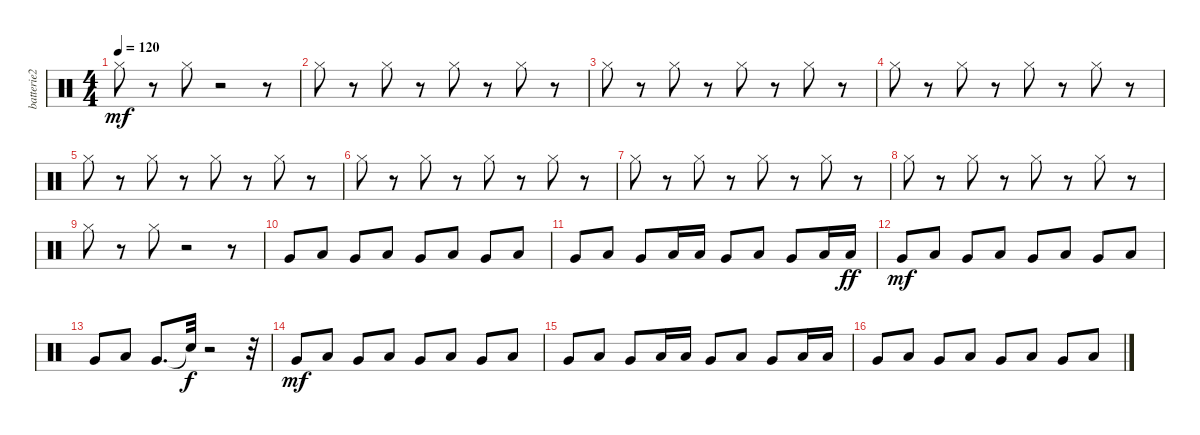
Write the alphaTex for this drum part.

\track ("batterie2" "batterie2") {instrument percussion}
\staff {score}
\articulation defaults
\ts (4 4)
\tempo 120
\clef neutral
\ks c "Hi-Hat (closed)".8{dy mf}
r.8 "Hi-Hat (closed)".8 r.2 r.8 |
"Hi-Hat (closed)".8 r.8 "Hi-Hat (closed)".8 r.8 "Hi-Hat (closed)".8 r.8 "Hi-Hat (closed)".8 r.8 |
"Hi-Hat (closed)".8 r.8 "Hi-Hat (closed)".8 r.8 "Hi-Hat (closed)".8 r.8 "Hi-Hat (closed)".8 r.8 |
"Hi-Hat (closed)".8 r.8 "Hi-Hat (closed)".8 r.8 "Hi-Hat (closed)".8 r.8 "Hi-Hat (closed)".8 r.8 |
"Hi-Hat (closed)".8 r.8 "Hi-Hat (closed)".8 r.8 "Hi-Hat (closed)".8 r.8 "Hi-Hat (closed)".8 r.8 |
"Hi-Hat (closed)".8 r.8 "Hi-Hat (closed)".8 r.8 "Hi-Hat (closed)".8 r.8 "Hi-Hat (closed)".8 r.8 |
"Hi-Hat (closed)".8 r.8 "Hi-Hat (closed)".8 r.8 "Hi-Hat (closed)".8 r.8 "Hi-Hat (closed)".8 r.8 |
"Hi-Hat (closed)".8 r.8 "Hi-Hat (closed)".8 r.8 "Hi-Hat (closed)".8 r.8 "Hi-Hat (closed)".8 r.8 |
"Hi-Hat (closed)".8 r.8 "Hi-Hat (closed)".8 r.2 r.8 |
"Very Low Tom (hit)".8 "Low Tom (hit)".8 "Very Low Tom (hit)".8 "Low Tom (hit)".8 "Very Low Tom (hit)".8 "Low Tom (hit)".8 "Very Low Tom (hit)".8 "Low Tom (hit)".8 |
"Very Low Tom (hit)".8 "Low Tom (hit)".8 "Very Low Tom (hit)".8 "Low Tom (hit)".16 "Low Tom (hit)".16 "Very Low Tom (hit)".8 "Low Tom (hit)".8 "Very Low Tom (hit)".8 "Low Tom (hit)".16 "Low Tom (hit)".16{dy ff} |
"Very Low Tom (hit)".8{dy mf} "Low Tom (hit)".8 "Very Low Tom (hit)".8 "Low Tom (hit)".8 "Very Low Tom (hit)".8 "Low Tom (hit)".8 "Very Low Tom (hit)".8 "Low Tom (hit)".8 |
"Very Low Tom (hit)".8 "Low Tom (hit)".8 "Very Low Tom (hit)".8{d} "Snare (hit)"{t}.32{dy f} r.2 r.32 |
"Very Low Tom (hit)".8{dy mf} "Low Tom (hit)".8 "Very Low Tom (hit)".8 "Low Tom (hit)".8 "Very Low Tom (hit)".8 "Low Tom (hit)".8 "Very Low Tom (hit)".8 "Low Tom (hit)".8 |
"Very Low Tom (hit)".8 "Low Tom (hit)".8 "Very Low Tom (hit)".8 "Low Tom (hit)".16 "Low Tom (hit)".16 "Very Low Tom (hit)".8 "Low Tom (hit)".8 "Very Low Tom (hit)".8 "Low Tom (hit)".16 "Low Tom (hit)".16 |
"Very Low Tom (hit)".8 "Low Tom (hit)".8 "Very Low Tom (hit)".8 "Low Tom (hit)".8 "Very Low Tom (hit)".8 "Low Tom (hit)".8 "Very Low Tom (hit)".8 "Low Tom (hit)".8
